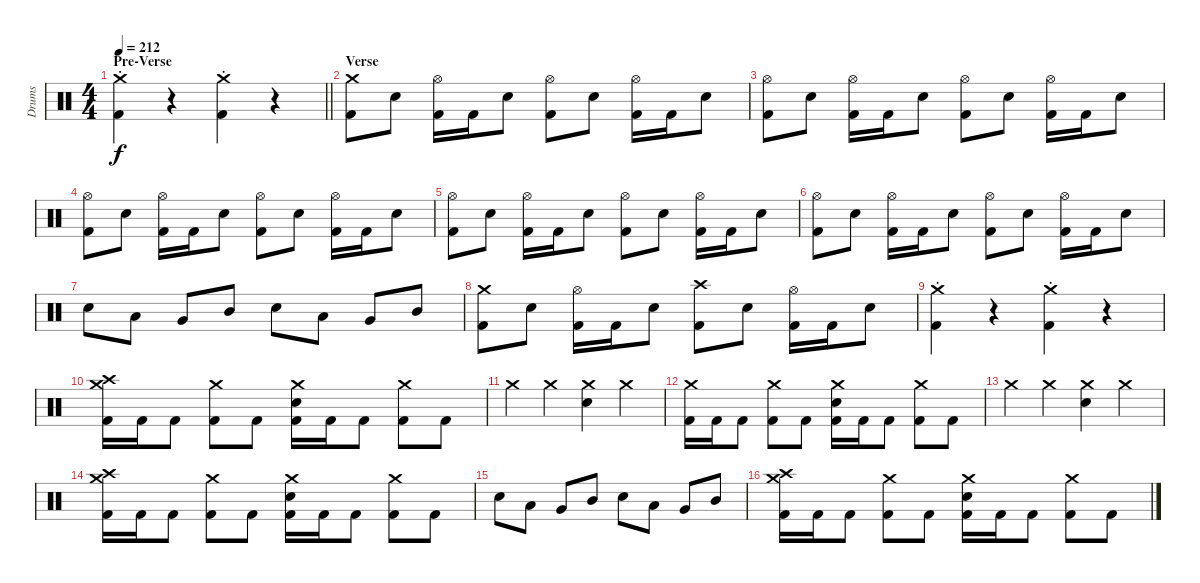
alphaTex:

\track ("Drums" "Drums") {instrument percussion}
\staff {score}
\articulation defaults
\ts (4 4)
\section ("" "Pre-Verse")
\tempo 212
\clef neutral
\barLineRight lightlight
\ks c
("Crash medium (hit)"{st} "Kick (hit) 2").4{dy f} r.4{volume 0} ("Crash medium (hit)"{st} "Kick (hit) 2").4{volume 14} r.4{volume 0} |
\section ("" "Verse")
("Crash medium (hit)" "Kick (hit) 2").8{volume 14} "Electric Snare (hit)".8 ("Hi-Hat (open)" "Kick (hit) 2").16 "Kick (hit) 2".16 "Electric Snare (hit)".8 ("Hi-Hat (open)" "Kick (hit) 2").8 "Electric Snare (hit)".8 ("Hi-Hat (open)" "Kick (hit) 2").16 "Kick (hit) 2".16 "Electric Snare (hit)".8 |
("Hi-Hat (open)" "Kick (hit) 2").8 "Electric Snare (hit)".8 ("Hi-Hat (open)" "Kick (hit) 2").16 "Kick (hit) 2".16 "Electric Snare (hit)".8 ("Hi-Hat (open)" "Kick (hit) 2").8 "Electric Snare (hit)".8 ("Hi-Hat (open)" "Kick (hit) 2").16 "Kick (hit) 2".16 "Electric Snare (hit)".8 |
("Hi-Hat (open)" "Kick (hit) 2").8 "Electric Snare (hit)".8 ("Hi-Hat (open)" "Kick (hit) 2").16 "Kick (hit) 2".16 "Electric Snare (hit)".8 ("Hi-Hat (open)" "Kick (hit) 2").8 "Electric Snare (hit)".8 ("Hi-Hat (open)" "Kick (hit) 2").16 "Kick (hit) 2".16 "Electric Snare (hit)".8 |
("Hi-Hat (open)" "Kick (hit) 2").8 "Electric Snare (hit)".8 ("Hi-Hat (open)" "Kick (hit) 2").16 "Kick (hit) 2".16 "Electric Snare (hit)".8 ("Hi-Hat (open)" "Kick (hit) 2").8 "Electric Snare (hit)".8 ("Hi-Hat (open)" "Kick (hit) 2").16 "Kick (hit) 2".16 "Electric Snare (hit)".8 |
("Hi-Hat (open)" "Kick (hit) 2").8 "Electric Snare (hit)".8 ("Hi-Hat (open)" "Kick (hit) 2").16 "Kick (hit) 2".16 "Electric Snare (hit)".8 ("Hi-Hat (open)" "Kick (hit) 2").8 "Electric Snare (hit)".8 ("Hi-Hat (open)" "Kick (hit) 2").16 "Kick (hit) 2".16 "Electric Snare (hit)".8 |
"Electric Snare (hit)".8 "Low Tom (hit)".8 "Very Low Tom (hit)".8 "Mid Tom (hit)".8 "Electric Snare (hit)".8 "Low Tom (hit)".8 "Very Low Tom (hit)".8 "Mid Tom (hit)".8 |
("Crash medium (hit)" "Kick (hit) 2").8 "Electric Snare (hit)".8 ("Hi-Hat (open)" "Kick (hit) 2").16 "Kick (hit) 2".16 "Electric Snare (hit)".8 ("Crash high (hit)" "Kick (hit) 2").8 "Electric Snare (hit)".8 ("Hi-Hat (open)" "Kick (hit) 2").16 "Kick (hit) 2".16 "Electric Snare (hit)".8 |
("Crash medium (hit)"{st} "Kick (hit) 2").4 r.4{volume 0} ("Crash medium (hit)"{st} "Kick (hit) 2").4{volume 14} r.4{volume 0} |
("Crash medium (hit)" "Crash high (hit)" "Kick (hit) 2").16{volume 14} "Kick (hit) 2".16 "Kick (hit) 2".8 ("Crash medium (hit)" "Kick (hit) 2").8 "Kick (hit) 2".8 ("Crash medium (hit)" "Electric Snare (hit)" "Kick (hit) 2").16 "Kick (hit) 2".16 "Kick (hit) 2".8 ("Crash medium (hit)" "Kick (hit) 2").8 "Kick (hit) 2".8 |
"Crash medium (hit)".4 "Crash medium (hit)".4 ("Crash medium (hit)" "Electric Snare (hit)").4 "Crash medium (hit)".4 |
("Crash medium (hit)" "Kick (hit) 2").16 "Kick (hit) 2".16 "Kick (hit) 2".8 ("Crash medium (hit)" "Kick (hit) 2").8 "Kick (hit) 2".8 ("Crash medium (hit)" "Electric Snare (hit)" "Kick (hit) 2").16 "Kick (hit) 2".16 "Kick (hit) 2".8 ("Crash medium (hit)" "Kick (hit) 2").8 "Kick (hit) 2".8 |
"Crash medium (hit)".4 "Crash medium (hit)".4 ("Crash medium (hit)" "Electric Snare (hit)").4 "Crash medium (hit)".4 |
("Crash medium (hit)" "Crash high (hit)" "Kick (hit) 2").16 "Kick (hit) 2".16 "Kick (hit) 2".8 ("Crash medium (hit)" "Kick (hit) 2").8 "Kick (hit) 2".8 ("Crash medium (hit)" "Electric Snare (hit)" "Kick (hit) 2").16 "Kick (hit) 2".16 "Kick (hit) 2".8 ("Crash medium (hit)" "Kick (hit) 2").8 "Kick (hit) 2".8 |
"Electric Snare (hit)".8 "Low Tom (hit)".8 "Very Low Tom (hit)".8 "Mid Tom (hit)".8 "Electric Snare (hit)".8 "Low Tom (hit)".8 "Very Low Tom (hit)".8 "Mid Tom (hit)".8 |
("Crash medium (hit)" "Crash high (hit)" "Kick (hit) 2").16 "Kick (hit) 2".16 "Kick (hit) 2".8 ("Crash medium (hit)" "Kick (hit) 2").8 "Kick (hit) 2".8 ("Crash medium (hit)" "Electric Snare (hit)" "Kick (hit) 2").16 "Kick (hit) 2".16 "Kick (hit) 2".8 ("Crash medium (hit)" "Kick (hit) 2").8 "Kick (hit) 2".8
